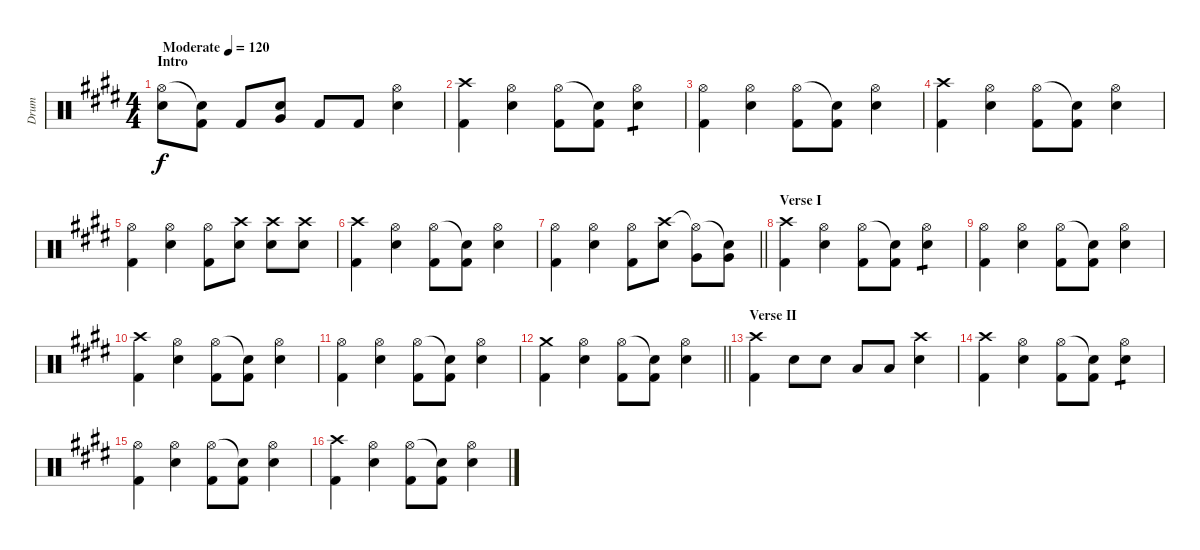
\track ("Drum" "Drum") {instrument percussion}
\staff {score}
\articulation defaults
\ts (4 4)
\section ("" "Intro")
\tempo (120 "Moderate")
\clef neutral
\ks e
("Hi-Hat (open)" "Electric Snare (hit)").8{dy f} ("Snare (hit)"{t} "Kick (hit) 2").8 "Kick (hit) 2".8 ("Electric Snare (hit)" "Very Low Tom (hit)").8 "Kick (hit) 2".8 "Kick (hit) 2".8 ("Hi-Hat (open)" "Electric Snare (hit)").4 |
("Crash high (hit)" "Kick (hit) 2").4 ("Hi-Hat (open)" "Electric Snare (hit)").4 ("Hi-Hat (open)" "Kick (hit) 2").8 ("Snare (hit)"{t} "Kick (hit) 2").8 ("Hi-Hat (open)" "Electric Snare (hit)").4{tp 1} |
("Hi-Hat (open)" "Kick (hit) 2").4 ("Hi-Hat (open)" "Electric Snare (hit)").4 ("Hi-Hat (open)" "Kick (hit) 2").8 ("Snare (hit)"{t} "Kick (hit) 2").8 ("Hi-Hat (open)" "Electric Snare (hit)").4 |
("Crash high (hit)" "Kick (hit) 2").4 ("Hi-Hat (open)" "Electric Snare (hit)").4 ("Hi-Hat (open)" "Kick (hit) 2").8 ("Snare (hit)"{t} "Kick (hit) 2").8 ("Hi-Hat (open)" "Electric Snare (hit)").4 |
("Hi-Hat (open)" "Kick (hit) 2").4 ("Hi-Hat (open)" "Electric Snare (hit)").4 ("Hi-Hat (open)" "Kick (hit) 2").8 ("Crash high (hit)" "Electric Snare (hit)").8 ("Crash high (hit)" "Electric Snare (hit)").8 ("Crash high (hit)" "Electric Snare (hit)").8 |
("Crash high (hit)" "Kick (hit) 2").4 ("Hi-Hat (open)" "Electric Snare (hit)").4 ("Hi-Hat (open)" "Kick (hit) 2").8 ("Snare (hit)"{t} "Kick (hit) 2").8 ("Hi-Hat (open)" "Electric Snare (hit)").4 |
\barLineRight lightlight
("Hi-Hat (open)" "Kick (hit) 2").4 ("Hi-Hat (open)" "Electric Snare (hit)").4 ("Hi-Hat (open)" "Kick (hit) 2").8 ("Crash high (hit)" "Electric Snare (hit)").8 ("Hi-Hat (open)"{t} "Very Low Tom (hit)").8 ("Snare (hit)"{t} "Very Low Tom (hit)").8 |
\section ("" "Verse I")
("Crash high (hit)" "Kick (hit) 2").4 ("Hi-Hat (open)" "Electric Snare (hit)").4 ("Hi-Hat (open)" "Kick (hit) 2").8 ("Snare (hit)"{t} "Kick (hit) 2").8 ("Hi-Hat (open)" "Electric Snare (hit)").4{tp 1} |
("Hi-Hat (open)" "Kick (hit) 2").4 ("Hi-Hat (open)" "Electric Snare (hit)").4 ("Hi-Hat (open)" "Kick (hit) 2").8 ("Snare (hit)"{t} "Kick (hit) 2").8 ("Hi-Hat (open)" "Electric Snare (hit)").4 |
("Crash high (hit)" "Kick (hit) 2").4 ("Hi-Hat (open)" "Electric Snare (hit)").4 ("Hi-Hat (open)" "Kick (hit) 2").8 ("Snare (hit)"{t} "Kick (hit) 2").8 ("Hi-Hat (open)" "Electric Snare (hit)").4 |
("Hi-Hat (open)" "Kick (hit) 2").4 ("Hi-Hat (open)" "Electric Snare (hit)").4 ("Hi-Hat (open)" "Kick (hit) 2").8 ("Snare (hit)"{t} "Kick (hit) 2").8 ("Hi-Hat (open)" "Electric Snare (hit)").4 |
\barLineRight lightlight
("Crash medium (hit)" "Kick (hit) 2").4 ("Hi-Hat (open)" "Electric Snare (hit)").4 ("Hi-Hat (open)" "Kick (hit) 2").8 ("Snare (hit)"{t} "Kick (hit) 2").8 ("Hi-Hat (open)" "Electric Snare (hit)").4 |
\section ("" "Verse II")
("Crash high (hit)" "Kick (hit) 2").4 "Electric Snare (hit)".8 "Electric Snare (hit)".8 "Low Tom (hit)".8 "Low Tom (hit)".8 ("Crash high (hit)" "Electric Snare (hit)").4 |
("Crash high (hit)" "Kick (hit) 2").4 ("Hi-Hat (open)" "Electric Snare (hit)").4 ("Hi-Hat (open)" "Kick (hit) 2").8 ("Snare (hit)"{t} "Kick (hit) 2").8 ("Hi-Hat (open)" "Electric Snare (hit)").4{tp 1} |
("Hi-Hat (open)" "Kick (hit) 2").4 ("Hi-Hat (open)" "Electric Snare (hit)").4 ("Hi-Hat (open)" "Kick (hit) 2").8 ("Snare (hit)"{t} "Kick (hit) 2").8 ("Hi-Hat (open)" "Electric Snare (hit)").4 |
("Crash high (hit)" "Kick (hit) 2").4 ("Hi-Hat (open)" "Electric Snare (hit)").4 ("Hi-Hat (open)" "Kick (hit) 2").8 ("Snare (hit)"{t} "Kick (hit) 2").8 ("Hi-Hat (open)" "Electric Snare (hit)").4
